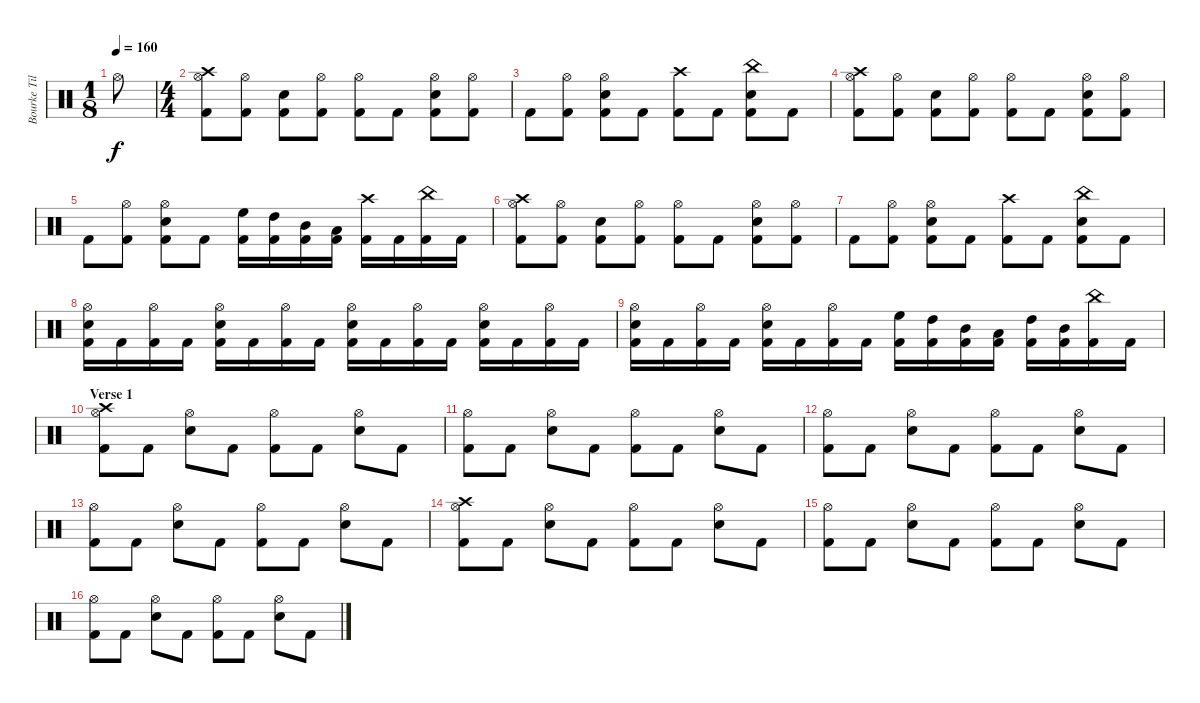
\track ("Bourke Tillman" "Bourke Til") {instrument percussion}
\staff {score}
\articulation defaults
\ts (1 8)
\tempo 160
\clef neutral
\ks c "Hi-Hat (open)"{t}.8{dy f}
|
\ts (4 4)
("Crash high (hit)" "Hi-Hat (open)" "Kick (hit) 2").8 ("Hi-Hat (open)" "Kick (hit) 2").8 ("Electric Snare (hit)" "Kick (hit) 2").8 ("Hi-Hat (open)" "Kick (hit) 2").8 ("Hi-Hat (open)" "Kick (hit) 2").8 "Kick (hit) 2".8 ("Hi-Hat (open)" "Electric Snare (hit)" "Kick (hit) 2").8 ("Hi-Hat (open)" "Kick (hit) 2").8 |
"Kick (hit) 2".8 ("Hi-Hat (open)" "Kick (hit) 2").8 ("Hi-Hat (open)" "Electric Snare (hit)" "Kick (hit) 2").8 "Kick (hit) 2".8 ("Crash high (hit)" "Kick (hit) 2").8 "Kick (hit) 2".8 ("China (hit)" "Electric Snare (hit)" "Kick (hit) 2").8 "Kick (hit) 2".8 |
("Crash high (hit)" "Hi-Hat (open)" "Kick (hit) 2").8 ("Hi-Hat (open)" "Kick (hit) 2").8 ("Electric Snare (hit)" "Kick (hit) 2").8 ("Hi-Hat (open)" "Kick (hit) 2").8 ("Hi-Hat (open)" "Kick (hit) 2").8 "Kick (hit) 2".8 ("Hi-Hat (open)" "Electric Snare (hit)" "Kick (hit) 2").8 ("Hi-Hat (open)" "Kick (hit) 2").8 |
"Kick (hit) 2".8 ("Hi-Hat (open)" "Kick (hit) 2").8 ("Hi-Hat (open)" "Electric Snare (hit)" "Kick (hit) 2").8 "Kick (hit) 2".8 ("High Floor Tom (hit)" "Kick (hit) 2").16 ("High Tom (hit)" "Kick (hit) 2").16 ("Mid Tom (hit)" "Kick (hit) 2").16 ("Low Tom (hit)" "Kick (hit) 2").16 ("Crash high (hit)" "Kick (hit) 2").16 "Kick (hit) 2".16 ("China (hit)" "Kick (hit) 2").16 "Kick (hit) 2".16 |
("Crash high (hit)" "Hi-Hat (open)" "Kick (hit) 2").8 ("Hi-Hat (open)" "Kick (hit) 2").8 ("Electric Snare (hit)" "Kick (hit) 2").8 ("Hi-Hat (open)" "Kick (hit) 2").8 ("Hi-Hat (open)" "Kick (hit) 2").8 "Kick (hit) 2".8 ("Hi-Hat (open)" "Electric Snare (hit)" "Kick (hit) 2").8 ("Hi-Hat (open)" "Kick (hit) 2").8 |
"Kick (hit) 2".8 ("Hi-Hat (open)" "Kick (hit) 2").8 ("Hi-Hat (open)" "Electric Snare (hit)" "Kick (hit) 2").8 "Kick (hit) 2".8 ("Crash high (hit)" "Kick (hit) 2").8 "Kick (hit) 2".8 ("China (hit)" "Electric Snare (hit)" "Kick (hit) 2").8 "Kick (hit) 2".8 |
("Hi-Hat (open)" "Electric Snare (hit)" "Kick (hit) 2").16 "Kick (hit) 2".16 ("Hi-Hat (open)" "Kick (hit) 2").16 "Kick (hit) 2".16 ("Hi-Hat (open)" "Electric Snare (hit)" "Kick (hit) 2").16 "Kick (hit) 2".16 ("Hi-Hat (open)" "Kick (hit) 2").16 "Kick (hit) 2".16 ("Hi-Hat (open)" "Electric Snare (hit)" "Kick (hit) 2").16 "Kick (hit) 2".16 ("Hi-Hat (open)" "Kick (hit) 2").16 "Kick (hit) 2".16 ("Hi-Hat (open)" "Electric Snare (hit)" "Kick (hit) 2").16 "Kick (hit) 2".16 ("Hi-Hat (open)" "Kick (hit) 2").16 "Kick (hit) 2".16 |
("Hi-Hat (open)" "Electric Snare (hit)" "Kick (hit) 2").16 "Kick (hit) 2".16 ("Hi-Hat (open)" "Kick (hit) 2").16 "Kick (hit) 2".16 ("Hi-Hat (open)" "Electric Snare (hit)" "Kick (hit) 2").16 "Kick (hit) 2".16 ("Hi-Hat (open)" "Kick (hit) 2").16 "Kick (hit) 2".16 ("High Floor Tom (hit)" "Kick (hit) 2").16 ("High Tom (hit)" "Kick (hit) 2").16 ("Mid Tom (hit)" "Kick (hit) 2").16 ("Low Tom (hit)" "Kick (hit) 2").16 ("High Tom (hit)" "Kick (hit) 2").16 ("Mid Tom (hit)" "Kick (hit) 2").16 ("China (hit)" "Kick (hit) 2").16 "Kick (hit) 2".16 |
\section ("" "Verse 1")
("Crash high (hit)" "Hi-Hat (open)" "Kick (hit) 2").8 "Kick (hit) 2".8 ("Hi-Hat (open)" "Electric Snare (hit)").8 "Kick (hit) 2".8 ("Hi-Hat (open)" "Kick (hit) 2").8 "Kick (hit) 2".8 ("Hi-Hat (open)" "Electric Snare (hit)").8 "Kick (hit) 2".8 |
("Hi-Hat (open)" "Kick (hit) 2").8 "Kick (hit) 2".8 ("Hi-Hat (open)" "Electric Snare (hit)").8 "Kick (hit) 2".8 ("Hi-Hat (open)" "Kick (hit) 2").8 "Kick (hit) 2".8 ("Hi-Hat (open)" "Electric Snare (hit)").8 "Kick (hit) 2".8 |
("Hi-Hat (open)" "Kick (hit) 2").8 "Kick (hit) 2".8 ("Hi-Hat (open)" "Electric Snare (hit)").8 "Kick (hit) 2".8 ("Hi-Hat (open)" "Kick (hit) 2").8 "Kick (hit) 2".8 ("Hi-Hat (open)" "Electric Snare (hit)").8 "Kick (hit) 2".8 |
("Hi-Hat (open)" "Kick (hit) 2").8 "Kick (hit) 2".8 ("Hi-Hat (open)" "Electric Snare (hit)").8 "Kick (hit) 2".8 ("Hi-Hat (open)" "Kick (hit) 2").8 "Kick (hit) 2".8 ("Hi-Hat (open)" "Electric Snare (hit)").8 "Kick (hit) 2".8 |
("Crash high (hit)" "Hi-Hat (open)" "Kick (hit) 2").8 "Kick (hit) 2".8 ("Hi-Hat (open)" "Electric Snare (hit)").8 "Kick (hit) 2".8 ("Hi-Hat (open)" "Kick (hit) 2").8 "Kick (hit) 2".8 ("Hi-Hat (open)" "Electric Snare (hit)").8 "Kick (hit) 2".8 |
("Hi-Hat (open)" "Kick (hit) 2").8 "Kick (hit) 2".8 ("Hi-Hat (open)" "Electric Snare (hit)").8 "Kick (hit) 2".8 ("Hi-Hat (open)" "Kick (hit) 2").8 "Kick (hit) 2".8 ("Hi-Hat (open)" "Electric Snare (hit)").8 "Kick (hit) 2".8 |
("Hi-Hat (open)" "Kick (hit) 2").8 "Kick (hit) 2".8 ("Hi-Hat (open)" "Electric Snare (hit)").8 "Kick (hit) 2".8 ("Hi-Hat (open)" "Kick (hit) 2").8 "Kick (hit) 2".8 ("Hi-Hat (open)" "Electric Snare (hit)").8 "Kick (hit) 2".8
